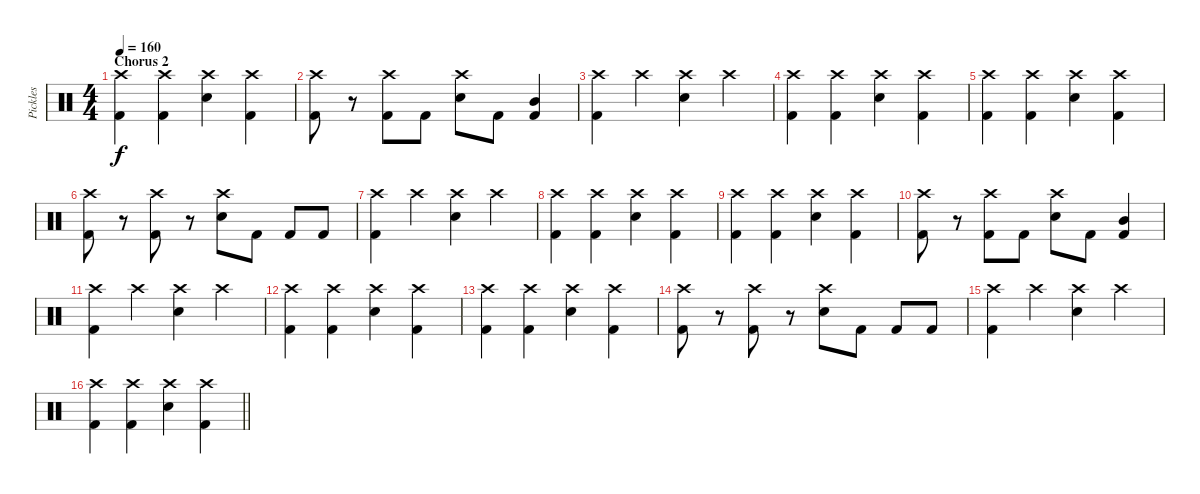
\track ("Pickles" "Pickles") {instrument percussion}
\staff {score}
\articulation defaults
\ts (4 4)
\section ("" "Chorus 2")
\tempo 160
\clef neutral
\ks c
("Crash high (hit)" "Kick (hit) 2").4{dy f} ("Crash high (hit)" "Kick (hit) 2").4 ("Crash high (hit)" "Electric Snare (hit)").4 ("Crash high (hit)" "Kick (hit) 2").4 |
("Crash high (hit)" "Kick (hit) 2").8 r.8 ("Crash high (hit)" "Kick (hit) 2").8 "Kick (hit) 2".8 ("Crash high (hit)" "Electric Snare (hit)").8 "Kick (hit) 2".8 ("Mid Tom (hit)" "Kick (hit) 2").4 |
("Crash high (hit)" "Kick (hit) 2").4 "Crash high (hit)".4 ("Crash high (hit)" "Electric Snare (hit)").4 "Crash high (hit)".4 |
("Crash high (hit)" "Kick (hit) 2").4 ("Crash high (hit)" "Kick (hit) 2").4 ("Crash high (hit)" "Electric Snare (hit)").4 ("Crash high (hit)" "Kick (hit) 2").4 |
("Crash high (hit)" "Kick (hit) 2").4 ("Crash high (hit)" "Kick (hit) 2").4 ("Crash high (hit)" "Electric Snare (hit)").4 ("Crash high (hit)" "Kick (hit) 2").4 |
("Crash high (hit)" "Kick (hit) 2").8 r.8 ("Crash high (hit)" "Kick (hit) 2").8 r.8 ("Crash high (hit)" "Electric Snare (hit)").8 "Kick (hit) 2".8 "Kick (hit) 2".8 "Kick (hit) 2".8 |
("Crash high (hit)" "Kick (hit) 2").4 "Crash high (hit)".4 ("Crash high (hit)" "Electric Snare (hit)").4 "Crash high (hit)".4 |
("Crash high (hit)" "Kick (hit) 2").4 ("Crash high (hit)" "Kick (hit) 2").4 ("Crash high (hit)" "Electric Snare (hit)").4 ("Crash high (hit)" "Kick (hit) 2").4 |
("Crash high (hit)" "Kick (hit) 2").4 ("Crash high (hit)" "Kick (hit) 2").4 ("Crash high (hit)" "Electric Snare (hit)").4 ("Crash high (hit)" "Kick (hit) 2").4 |
("Crash high (hit)" "Kick (hit) 2").8 r.8 ("Crash high (hit)" "Kick (hit) 2").8 "Kick (hit) 2".8 ("Crash high (hit)" "Electric Snare (hit)").8 "Kick (hit) 2".8 ("Mid Tom (hit)" "Kick (hit) 2").4 |
("Crash high (hit)" "Kick (hit) 2").4 "Crash high (hit)".4 ("Crash high (hit)" "Electric Snare (hit)").4 "Crash high (hit)".4 |
("Crash high (hit)" "Kick (hit) 2").4 ("Crash high (hit)" "Kick (hit) 2").4 ("Crash high (hit)" "Electric Snare (hit)").4 ("Crash high (hit)" "Kick (hit) 2").4 |
("Crash high (hit)" "Kick (hit) 2").4 ("Crash high (hit)" "Kick (hit) 2").4 ("Crash high (hit)" "Electric Snare (hit)").4 ("Crash high (hit)" "Kick (hit) 2").4 |
("Crash high (hit)" "Kick (hit) 2").8 r.8 ("Crash high (hit)" "Kick (hit) 2").8 r.8 ("Crash high (hit)" "Electric Snare (hit)").8 "Kick (hit) 2".8 "Kick (hit) 2".8 "Kick (hit) 2".8 |
("Crash high (hit)" "Kick (hit) 2").4 "Crash high (hit)".4 ("Crash high (hit)" "Electric Snare (hit)").4 "Crash high (hit)".4 |
\barLineRight lightlight
("Crash high (hit)" "Kick (hit) 2").4 ("Crash high (hit)" "Kick (hit) 2").4 ("Crash high (hit)" "Electric Snare (hit)").4 ("Crash high (hit)" "Kick (hit) 2").4
